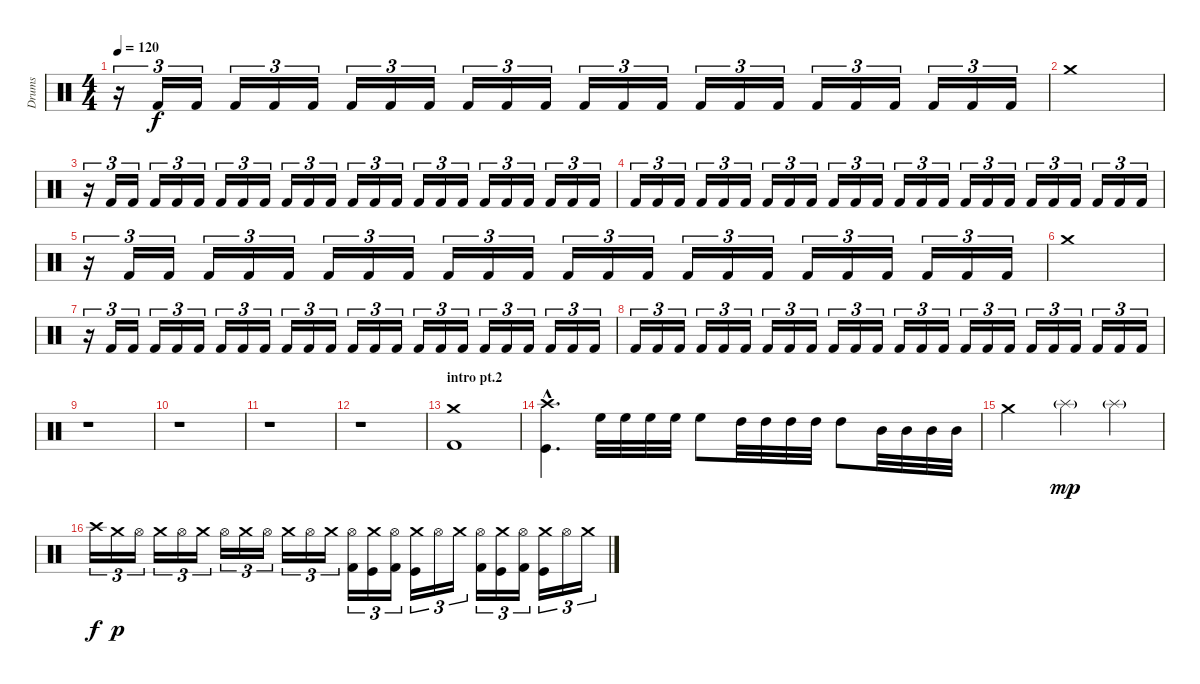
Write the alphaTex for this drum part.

\track ("Drums" "Drums") {instrument percussion}
\staff {score}
\articulation defaults
\ts (4 4)
\tempo 120
\clef neutral
\ks c
r.16{tu (3 2) dy f volume 4} "Kick (hit) 2".16{tu (3 2) volume 11} "Kick (hit) 2".16{tu (3 2)} "Kick (hit) 2".16{tu (3 2)} "Kick (hit) 2".16{tu (3 2)} "Kick (hit) 2".16{tu (3 2)} "Kick (hit) 2".16{tu (3 2)} "Kick (hit) 2".16{tu (3 2)} "Kick (hit) 2".16{tu (3 2)} "Kick (hit) 2".16{tu (3 2)} "Kick (hit) 2".16{tu (3 2)} "Kick (hit) 2".16{tu (3 2)} "Kick (hit) 2".16{tu (3 2)} "Kick (hit) 2".16{tu (3 2)} "Kick (hit) 2".16{tu (3 2)} "Kick (hit) 2".16{tu (3 2)} "Kick (hit) 2".16{tu (3 2)} "Kick (hit) 2".16{tu (3 2)} "Kick (hit) 2".16{tu (3 2)} "Kick (hit) 2".16{tu (3 2)} "Kick (hit) 2".16{tu (3 2)} "Kick (hit) 2".16{tu (3 2)} "Kick (hit) 2".16{tu (3 2)} "Kick (hit) 2".16{tu (3 2)} |
"Crash medium (hit)".1 |
r.16{tu (3 2) volume 4} "Kick (hit) 2".16{tu (3 2) volume 11} "Kick (hit) 2".16{tu (3 2)} "Kick (hit) 2".16{tu (3 2)} "Kick (hit) 2".16{tu (3 2)} "Kick (hit) 2".16{tu (3 2)} "Kick (hit) 2".16{tu (3 2)} "Kick (hit) 2".16{tu (3 2)} "Kick (hit) 2".16{tu (3 2)} "Kick (hit) 2".16{tu (3 2)} "Kick (hit) 2".16{tu (3 2)} "Kick (hit) 2".16{tu (3 2)} "Kick (hit) 2".16{tu (3 2)} "Kick (hit) 2".16{tu (3 2)} "Kick (hit) 2".16{tu (3 2)} "Kick (hit) 2".16{tu (3 2)} "Kick (hit) 2".16{tu (3 2)} "Kick (hit) 2".16{tu (3 2)} "Kick (hit) 2".16{tu (3 2)} "Kick (hit) 2".16{tu (3 2)} "Kick (hit) 2".16{tu (3 2)} "Kick (hit) 2".16{tu (3 2)} "Kick (hit) 2".16{tu (3 2)} "Kick (hit) 2".16{tu (3 2)} |
"Kick (hit) 2".16{tu (3 2)} "Kick (hit) 2".16{tu (3 2) volume 4} "Kick (hit) 2".16{tu (3 2)} "Kick (hit) 2".16{tu (3 2)} "Kick (hit) 2".16{tu (3 2)} "Kick (hit) 2".16{tu (3 2)} "Kick (hit) 2".16{tu (3 2)} "Kick (hit) 2".16{tu (3 2)} "Kick (hit) 2".16{tu (3 2)} "Kick (hit) 2".16{tu (3 2)} "Kick (hit) 2".16{tu (3 2)} "Kick (hit) 2".16{tu (3 2)} "Kick (hit) 2".16{tu (3 2)} "Kick (hit) 2".16{tu (3 2)} "Kick (hit) 2".16{tu (3 2)} "Kick (hit) 2".16{tu (3 2)} "Kick (hit) 2".16{tu (3 2)} "Kick (hit) 2".16{tu (3 2)} "Kick (hit) 2".16{tu (3 2)} "Kick (hit) 2".16{tu (3 2)} "Kick (hit) 2".16{tu (3 2)} "Kick (hit) 2".16{tu (3 2)} "Kick (hit) 2".16{tu (3 2)} "Kick (hit) 2".16{tu (3 2)} |
r.16{tu (3 2) volume 4} "Kick (hit) 2".16{tu (3 2) volume 11} "Kick (hit) 2".16{tu (3 2)} "Kick (hit) 2".16{tu (3 2)} "Kick (hit) 2".16{tu (3 2)} "Kick (hit) 2".16{tu (3 2)} "Kick (hit) 2".16{tu (3 2)} "Kick (hit) 2".16{tu (3 2)} "Kick (hit) 2".16{tu (3 2)} "Kick (hit) 2".16{tu (3 2)} "Kick (hit) 2".16{tu (3 2)} "Kick (hit) 2".16{tu (3 2)} "Kick (hit) 2".16{tu (3 2)} "Kick (hit) 2".16{tu (3 2)} "Kick (hit) 2".16{tu (3 2)} "Kick (hit) 2".16{tu (3 2)} "Kick (hit) 2".16{tu (3 2)} "Kick (hit) 2".16{tu (3 2)} "Kick (hit) 2".16{tu (3 2)} "Kick (hit) 2".16{tu (3 2)} "Kick (hit) 2".16{tu (3 2)} "Kick (hit) 2".16{tu (3 2)} "Kick (hit) 2".16{tu (3 2)} "Kick (hit) 2".16{tu (3 2)} |
"Crash medium (hit)".1 |
r.16{tu (3 2) volume 4} "Kick (hit) 2".16{tu (3 2) volume 11} "Kick (hit) 2".16{tu (3 2)} "Kick (hit) 2".16{tu (3 2)} "Kick (hit) 2".16{tu (3 2)} "Kick (hit) 2".16{tu (3 2)} "Kick (hit) 2".16{tu (3 2)} "Kick (hit) 2".16{tu (3 2)} "Kick (hit) 2".16{tu (3 2)} "Kick (hit) 2".16{tu (3 2)} "Kick (hit) 2".16{tu (3 2)} "Kick (hit) 2".16{tu (3 2)} "Kick (hit) 2".16{tu (3 2)} "Kick (hit) 2".16{tu (3 2)} "Kick (hit) 2".16{tu (3 2)} "Kick (hit) 2".16{tu (3 2)} "Kick (hit) 2".16{tu (3 2)} "Kick (hit) 2".16{tu (3 2)} "Kick (hit) 2".16{tu (3 2)} "Kick (hit) 2".16{tu (3 2)} "Kick (hit) 2".16{tu (3 2)} "Kick (hit) 2".16{tu (3 2)} "Kick (hit) 2".16{tu (3 2)} "Kick (hit) 2".16{tu (3 2)} |
"Kick (hit) 2".16{tu (3 2)} "Kick (hit) 2".16{tu (3 2) volume 4} "Kick (hit) 2".16{tu (3 2)} "Kick (hit) 2".16{tu (3 2)} "Kick (hit) 2".16{tu (3 2)} "Kick (hit) 2".16{tu (3 2)} "Kick (hit) 2".16{tu (3 2)} "Kick (hit) 2".16{tu (3 2)} "Kick (hit) 2".16{tu (3 2)} "Kick (hit) 2".16{tu (3 2)} "Kick (hit) 2".16{tu (3 2)} "Kick (hit) 2".16{tu (3 2)} "Kick (hit) 2".16{tu (3 2)} "Kick (hit) 2".16{tu (3 2)} "Kick (hit) 2".16{tu (3 2)} "Kick (hit) 2".16{tu (3 2)} "Kick (hit) 2".16{tu (3 2)} "Kick (hit) 2".16{tu (3 2)} "Kick (hit) 2".16{tu (3 2)} "Kick (hit) 2".16{tu (3 2)} "Kick (hit) 2".16{tu (3 2)} "Kick (hit) 2".16{tu (3 2)} "Kick (hit) 2".16{tu (3 2)} "Kick (hit) 2".16{tu (3 2)} |
r.1{volume 13} |
r.1 |
r.1 |
r.1 |
\section ("" "intro pt.2")
("Crash medium (hit)" "Kick (hit) 2").1{volume 13 balance 8} |
("Crash high (hit)"{hac} "Kick (hit)"{hac}).4{d} "High Floor Tom (hit)".32 "High Floor Tom (hit)".32 "High Floor Tom (hit)".32 "High Floor Tom (hit)".32 "High Floor Tom (hit)".8 "High Tom (hit)".32 "High Tom (hit)".32 "High Tom (hit)".32 "High Tom (hit)".32 "High Tom (hit)".8 "Mid Tom (hit)".32 "Mid Tom (hit)".32 "Mid Tom (hit)".32 "Mid Tom (hit)".32 |
"Crash medium (hit)".2 "Splash (hit)"{g}.4{dy mp} "Splash (hit)"{g}.4 |
"Crash high (hit)".16{tu (3 2) dy f} "Crash medium (hit)".16{tu (3 2) dy p} "Hi-Hat (open)".16{tu (3 2)} "Crash medium (hit)".16{tu (3 2)} "Hi-Hat (open)".16{tu (3 2)} "Crash medium (hit)".16{tu (3 2)} "Hi-Hat (open)".16{tu (3 2)} "Crash medium (hit)".16{tu (3 2)} "Hi-Hat (open)".16{tu (3 2)} "Crash medium (hit)".16{tu (3 2)} "Hi-Hat (open)".16{tu (3 2)} "Crash medium (hit)".16{tu (3 2)} ("Hi-Hat (open)" "Kick (hit) 2").16{tu (3 2)} ("Crash medium (hit)" "Kick (hit)").16{tu (3 2)} ("Hi-Hat (open)" "Kick (hit) 2").16{tu (3 2)} ("Crash medium (hit)" "Kick (hit)").16{tu (3 2)} "Hi-Hat (open)".16{tu (3 2)} "Crash medium (hit)".16{tu (3 2)} ("Hi-Hat (open)" "Kick (hit) 2").16{tu (3 2)} ("Crash medium (hit)" "Kick (hit)").16{tu (3 2)} ("Hi-Hat (open)" "Kick (hit) 2").16{tu (3 2)} ("Crash medium (hit)" "Kick (hit)").16{tu (3 2)} "Hi-Hat (open)".16{tu (3 2)} "Crash medium (hit)".16{tu (3 2)}
